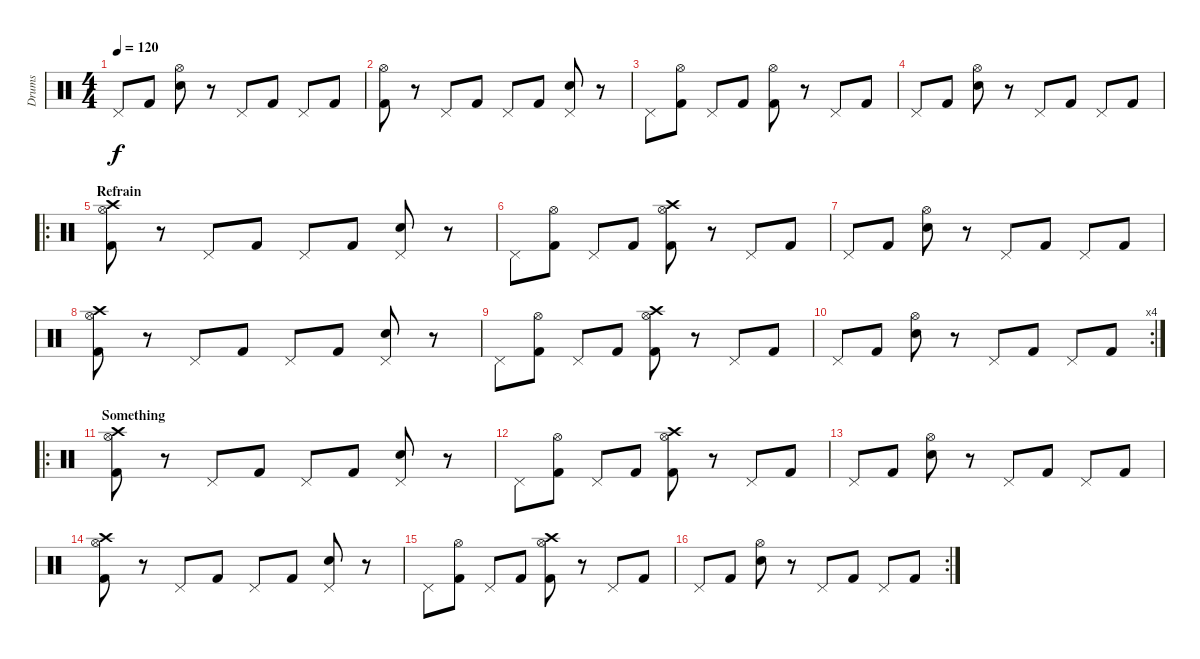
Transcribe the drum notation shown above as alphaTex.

\track ("Drums" "Drums") {instrument percussion}
\staff {score}
\articulation defaults
\ts (4 4)
\tempo 120
\clef neutral
\ks c "Pedal Hi-Hat (hit)".8{dy f} "Kick (hit) 2".8
("Hi-Hat (open)" "Snare (hit) 2").8 r.8 "Pedal Hi-Hat (hit)".8 "Kick (hit) 2".8 "Pedal Hi-Hat (hit)".8 "Kick (hit) 2".8 |
("Hi-Hat (open)" "Kick (hit) 2").8 r.8 "Pedal Hi-Hat (hit)".8 "Kick (hit) 2".8 "Pedal Hi-Hat (hit)".8 "Kick (hit) 2".8 ("Pedal Hi-Hat (hit)" "Snare (hit) 2").8 r.8 |
"Pedal Hi-Hat (hit)".8 ("Hi-Hat (open)" "Kick (hit) 2").8 "Pedal Hi-Hat (hit)".8 "Kick (hit) 2".8 ("Hi-Hat (open)" "Kick (hit) 2").8 r.8 "Pedal Hi-Hat (hit)".8 "Kick (hit) 2".8 |
"Pedal Hi-Hat (hit)".8 "Kick (hit) 2".8 ("Hi-Hat (open)" "Snare (hit) 2").8 r.8 "Pedal Hi-Hat (hit)".8 "Kick (hit) 2".8 "Pedal Hi-Hat (hit)".8 "Kick (hit) 2".8 |
\ro
\section ("" "Refrain")
("Crash high (hit)" "Hi-Hat (open)" "Kick (hit) 2").8 r.8 "Pedal Hi-Hat (hit)".8 "Kick (hit) 2".8 "Pedal Hi-Hat (hit)".8 "Kick (hit) 2".8 ("Pedal Hi-Hat (hit)" "Snare (hit) 2").8 r.8 |
"Pedal Hi-Hat (hit)".8 ("Hi-Hat (open)" "Kick (hit) 2").8 "Pedal Hi-Hat (hit)".8 "Kick (hit) 2".8 ("Crash high (hit)" "Hi-Hat (open)" "Kick (hit) 2").8 r.8 "Pedal Hi-Hat (hit)".8 "Kick (hit) 2".8 |
"Pedal Hi-Hat (hit)".8 "Kick (hit) 2".8 ("Hi-Hat (open)" "Snare (hit) 2").8 r.8 "Pedal Hi-Hat (hit)".8 "Kick (hit) 2".8 "Pedal Hi-Hat (hit)".8 "Kick (hit) 2".8 |
("Crash high (hit)" "Hi-Hat (open)" "Kick (hit) 2").8 r.8 "Pedal Hi-Hat (hit)".8 "Kick (hit) 2".8 "Pedal Hi-Hat (hit)".8 "Kick (hit) 2".8 ("Pedal Hi-Hat (hit)" "Snare (hit) 2").8 r.8 |
"Pedal Hi-Hat (hit)".8 ("Hi-Hat (open)" "Kick (hit) 2").8 "Pedal Hi-Hat (hit)".8 "Kick (hit) 2".8 ("Crash high (hit)" "Hi-Hat (open)" "Kick (hit) 2").8 r.8 "Pedal Hi-Hat (hit)".8 "Kick (hit) 2".8 |
\rc 4 "Pedal Hi-Hat (hit)".8 "Kick (hit) 2".8
("Hi-Hat (open)" "Snare (hit) 2").8 r.8 "Pedal Hi-Hat (hit)".8 "Kick (hit) 2".8 "Pedal Hi-Hat (hit)".8 "Kick (hit) 2".8 |
\ro
\section ("" "Something")
("Crash high (hit)" "Hi-Hat (open)" "Kick (hit) 2").8 r.8 "Pedal Hi-Hat (hit)".8 "Kick (hit) 2".8 "Pedal Hi-Hat (hit)".8 "Kick (hit) 2".8 ("Pedal Hi-Hat (hit)" "Snare (hit) 2").8 r.8 |
"Pedal Hi-Hat (hit)".8 ("Hi-Hat (open)" "Kick (hit) 2").8 "Pedal Hi-Hat (hit)".8 "Kick (hit) 2".8 ("Crash high (hit)" "Hi-Hat (open)" "Kick (hit) 2").8 r.8 "Pedal Hi-Hat (hit)".8 "Kick (hit) 2".8 |
"Pedal Hi-Hat (hit)".8 "Kick (hit) 2".8 ("Hi-Hat (open)" "Snare (hit) 2").8 r.8 "Pedal Hi-Hat (hit)".8 "Kick (hit) 2".8 "Pedal Hi-Hat (hit)".8 "Kick (hit) 2".8 |
("Crash high (hit)" "Hi-Hat (open)" "Kick (hit) 2").8 r.8 "Pedal Hi-Hat (hit)".8 "Kick (hit) 2".8 "Pedal Hi-Hat (hit)".8 "Kick (hit) 2".8 ("Pedal Hi-Hat (hit)" "Snare (hit) 2").8 r.8 |
"Pedal Hi-Hat (hit)".8 ("Hi-Hat (open)" "Kick (hit) 2").8 "Pedal Hi-Hat (hit)".8 "Kick (hit) 2".8 ("Crash high (hit)" "Hi-Hat (open)" "Kick (hit) 2").8 r.8 "Pedal Hi-Hat (hit)".8 "Kick (hit) 2".8 |
\rc 2 "Pedal Hi-Hat (hit)".8 "Kick (hit) 2".8
("Hi-Hat (open)" "Snare (hit) 2").8 r.8 "Pedal Hi-Hat (hit)".8 "Kick (hit) 2".8 "Pedal Hi-Hat (hit)".8 "Kick (hit) 2".8
